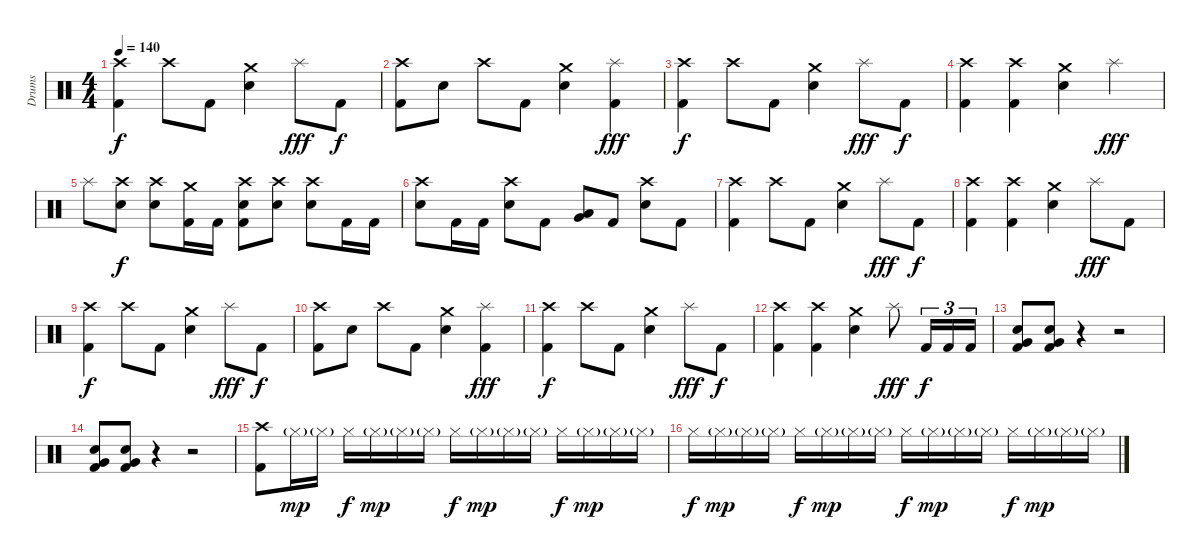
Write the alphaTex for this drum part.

\track ("Drums" "Drums") {instrument percussion}
\staff {score}
\articulation defaults
\ts (4 4)
\tempo 140
\clef neutral
\ks c
("Crash high (hit)" "Kick (hit) 2").4{dy f} "Crash high (hit)".8 "Kick (hit) 2".8 ("Crash medium (hit)" "Electric Snare (hit)").4 "Splash (hit)".8{dy fff} "Kick (hit) 2".8{dy f} |
("Crash high (hit)" "Kick (hit) 2").8 "Electric Snare (hit)".8 "Crash high (hit)".8 "Kick (hit) 2".8 ("Crash medium (hit)" "Electric Snare (hit)").4 ("Splash (hit)" "Kick (hit) 2").4{dy fff} |
("Crash high (hit)" "Kick (hit) 2").4{dy f} "Crash high (hit)".8 "Kick (hit) 2".8 ("Crash medium (hit)" "Electric Snare (hit)").4 "Splash (hit)".8{dy fff} "Kick (hit) 2".8{dy f} |
("Crash high (hit)" "Kick (hit) 2").4 ("Crash high (hit)" "Kick (hit) 2").4 ("Crash medium (hit)" "Electric Snare (hit)").4 "Splash (hit)".4{dy fff} |
"Splash (hit)".8 ("Crash high (hit)" "Electric Snare (hit)").8{dy f} ("Crash high (hit)" "Electric Snare (hit)").8 ("Crash medium (hit)" "Kick (hit) 2").16 "Kick (hit) 2".16 ("Crash high (hit)" "Electric Snare (hit)" "Kick (hit) 2").8 ("Crash high (hit)" "Electric Snare (hit)").8 ("Crash high (hit)" "Electric Snare (hit)").8 "Kick (hit) 2".16 "Kick (hit) 2".16 |
("Crash high (hit)" "Electric Snare (hit)").8 "Kick (hit) 2".16 "Kick (hit) 2".16 ("Crash high (hit)" "Electric Snare (hit)").8 "Kick (hit) 2".8 ("Low Floor Tom (hit)" "Very Low Tom (hit)").8 "Kick (hit) 2".8 ("Crash high (hit)" "Electric Snare (hit)").8 "Kick (hit) 2".8 |
("Crash high (hit)" "Kick (hit) 2").4 "Crash high (hit)".8 "Kick (hit) 2".8 ("Crash medium (hit)" "Electric Snare (hit)").4 "Splash (hit)".8{dy fff} "Kick (hit) 2".8{dy f} |
("Crash high (hit)" "Kick (hit) 2").4 ("Crash high (hit)" "Kick (hit) 2").4 ("Crash medium (hit)" "Electric Snare (hit)").4 "Splash (hit)".8{dy fff} "Kick (hit) 2".8 |
("Crash high (hit)" "Kick (hit) 2").4{dy f} "Crash high (hit)".8 "Kick (hit) 2".8 ("Crash medium (hit)" "Electric Snare (hit)").4 "Splash (hit)".8{dy fff} "Kick (hit) 2".8{dy f} |
("Crash high (hit)" "Kick (hit) 2").8 "Electric Snare (hit)".8 "Crash high (hit)".8 "Kick (hit) 2".8 ("Crash medium (hit)" "Electric Snare (hit)").4 ("Splash (hit)" "Kick (hit) 2").4{dy fff} |
("Crash high (hit)" "Kick (hit) 2").4{dy f} "Crash high (hit)".8 "Kick (hit) 2".8 ("Crash medium (hit)" "Electric Snare (hit)").4 "Splash (hit)".8{dy fff} "Kick (hit) 2".8{dy f} |
("Crash high (hit)" "Kick (hit) 2").4 ("Crash high (hit)" "Kick (hit) 2").4 ("Crash medium (hit)" "Electric Snare (hit)").4 "Splash (hit)".8{dy fff} "Kick (hit) 2".16{tu (3 2) dy f} "Kick (hit) 2".16{tu (3 2)} "Kick (hit) 2".16{tu (3 2)} |
("Electric Snare (hit)" "Very Low Tom (hit)" "Kick (hit) 2").8 ("Electric Snare (hit)" "Very Low Tom (hit)" "Kick (hit) 2").8 r.4 r.2 |
("Electric Snare (hit)" "Very Low Tom (hit)" "Kick (hit) 2").8 ("Electric Snare (hit)" "Very Low Tom (hit)" "Kick (hit) 2").8 r.4 r.2 |
("Crash high (hit)" "Kick (hit) 2").8 "Hi-Hat (closed)"{g}.16{dy mp} "Hi-Hat (closed)"{g}.16 "Hi-Hat (closed)".16{dy f} "Hi-Hat (closed)"{g}.16{dy mp} "Hi-Hat (closed)"{g}.16 "Hi-Hat (closed)"{g}.16 "Hi-Hat (closed)".16{dy f} "Hi-Hat (closed)"{g}.16{dy mp} "Hi-Hat (closed)"{g}.16 "Hi-Hat (closed)"{g}.16 "Hi-Hat (closed)".16{dy f} "Hi-Hat (closed)"{g}.16{dy mp} "Hi-Hat (closed)"{g}.16 "Hi-Hat (closed)"{g}.16 |
"Hi-Hat (closed)".16{dy f} "Hi-Hat (closed)"{g}.16{dy mp} "Hi-Hat (closed)"{g}.16 "Hi-Hat (closed)"{g}.16 "Hi-Hat (closed)".16{dy f} "Hi-Hat (closed)"{g}.16{dy mp} "Hi-Hat (closed)"{g}.16 "Hi-Hat (closed)"{g}.16 "Hi-Hat (closed)".16{dy f} "Hi-Hat (closed)"{g}.16{dy mp} "Hi-Hat (closed)"{g}.16 "Hi-Hat (closed)"{g}.16 "Hi-Hat (closed)".16{dy f} "Hi-Hat (closed)"{g}.16{dy mp} "Hi-Hat (closed)"{g}.16 "Hi-Hat (closed)"{g}.16
